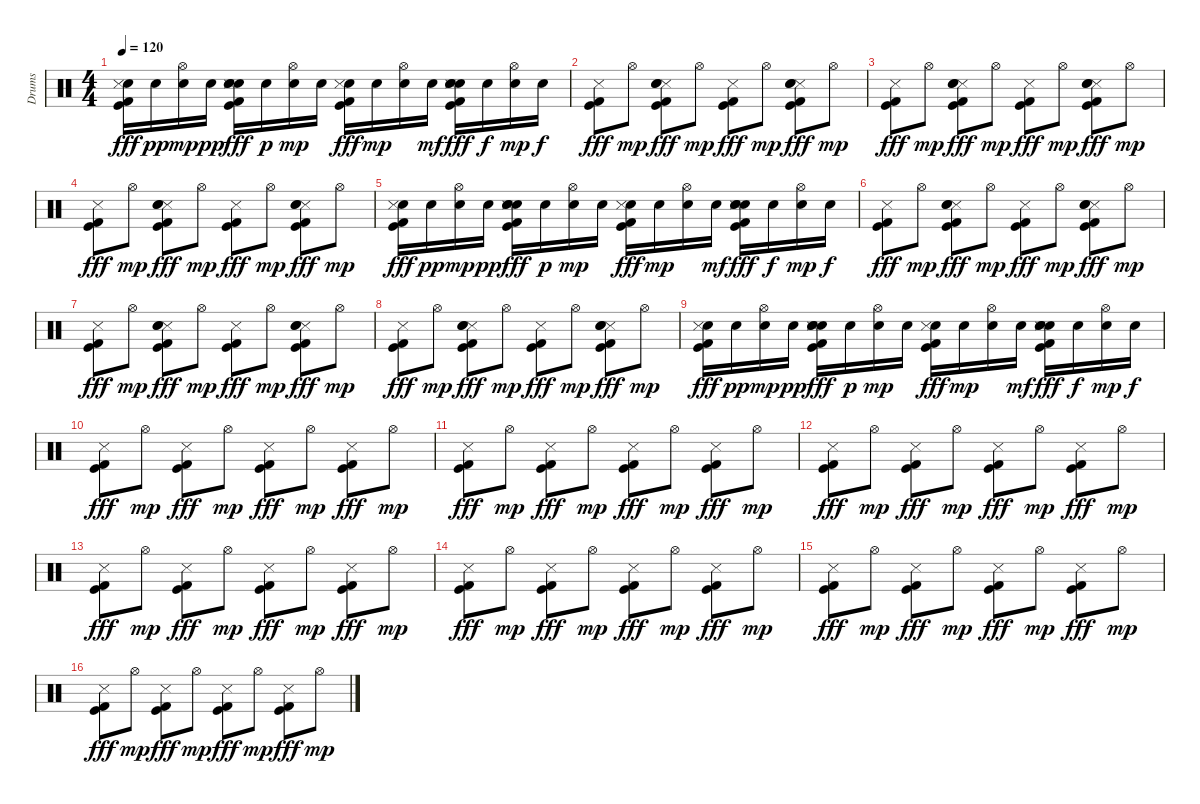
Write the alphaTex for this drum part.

\track ("Drums" "Drums") {instrument percussion}
\staff {score}
\articulation defaults
\ts (4 4)
\tempo 120
\clef neutral
\ks c
("Snare (hit)" "Metronome (hit)" "Kick (hit)" "Kick (hit) 2").16{dy fff} "Snare (hit)".16{dy pp} ("Snare (hit)" "Hi-Hat (open)").16{dy mp} "Snare (hit)".16{dy pp} ("Snare (hit)" "Metronome (hit)" "Kick (hit)" "Kick (hit) 2" "Snare (hit) 2" "Electric Snare (hit)").16{dy fff} "Snare (hit)".16{dy p} ("Snare (hit)" "Hi-Hat (open)").16{dy mp} "Snare (hit)".16 ("Snare (hit)" "Metronome (hit)" "Kick (hit)" "Kick (hit) 2").16{dy fff} "Snare (hit)".16{dy mp} ("Snare (hit)" "Hi-Hat (open)").16 "Snare (hit)".16{dy mf} ("Snare (hit)" "Metronome (hit)" "Kick (hit)" "Kick (hit) 2" "Snare (hit) 2" "Electric Snare (hit)").16{dy fff} "Snare (hit)".16{dy f} ("Snare (hit)" "Hi-Hat (open)").16{dy mp} "Snare (hit)".16{dy f} |
("Metronome (hit)" "Kick (hit)" "Kick (hit) 2").8{dy fff} "Hi-Hat (open)".8{dy mp} ("Metronome (hit)" "Kick (hit)" "Kick (hit) 2" "Snare (hit) 2" "Electric Snare (hit)").8{dy fff} "Hi-Hat (open)".8{dy mp} ("Metronome (hit)" "Kick (hit)" "Kick (hit) 2").8{dy fff} "Hi-Hat (open)".8{dy mp} ("Metronome (hit)" "Kick (hit)" "Kick (hit) 2" "Snare (hit) 2" "Electric Snare (hit)").8{dy fff} "Hi-Hat (open)".8{dy mp} |
("Metronome (hit)" "Kick (hit)" "Kick (hit) 2").8{dy fff} "Hi-Hat (open)".8{dy mp} ("Metronome (hit)" "Kick (hit)" "Kick (hit) 2" "Snare (hit) 2" "Electric Snare (hit)").8{dy fff} "Hi-Hat (open)".8{dy mp} ("Metronome (hit)" "Kick (hit)" "Kick (hit) 2").8{dy fff} "Hi-Hat (open)".8{dy mp} ("Metronome (hit)" "Kick (hit)" "Kick (hit) 2" "Snare (hit) 2" "Electric Snare (hit)").8{dy fff} "Hi-Hat (open)".8{dy mp} |
("Metronome (hit)" "Kick (hit)" "Kick (hit) 2").8{dy fff} "Hi-Hat (open)".8{dy mp} ("Metronome (hit)" "Kick (hit)" "Kick (hit) 2" "Snare (hit) 2" "Electric Snare (hit)").8{dy fff} "Hi-Hat (open)".8{dy mp} ("Metronome (hit)" "Kick (hit)" "Kick (hit) 2").8{dy fff} "Hi-Hat (open)".8{dy mp} ("Metronome (hit)" "Kick (hit)" "Kick (hit) 2" "Snare (hit) 2" "Electric Snare (hit)").8{dy fff} "Hi-Hat (open)".8{dy mp} |
("Snare (hit)" "Metronome (hit)" "Kick (hit)" "Kick (hit) 2").16{dy fff} "Snare (hit)".16{dy pp} ("Snare (hit)" "Hi-Hat (open)").16{dy mp} "Snare (hit)".16{dy pp} ("Snare (hit)" "Metronome (hit)" "Kick (hit)" "Kick (hit) 2" "Snare (hit) 2" "Electric Snare (hit)").16{dy fff} "Snare (hit)".16{dy p} ("Snare (hit)" "Hi-Hat (open)").16{dy mp} "Snare (hit)".16 ("Snare (hit)" "Metronome (hit)" "Kick (hit)" "Kick (hit) 2").16{dy fff} "Snare (hit)".16{dy mp} ("Snare (hit)" "Hi-Hat (open)").16 "Snare (hit)".16{dy mf} ("Snare (hit)" "Metronome (hit)" "Kick (hit)" "Kick (hit) 2" "Snare (hit) 2" "Electric Snare (hit)").16{dy fff} "Snare (hit)".16{dy f} ("Snare (hit)" "Hi-Hat (open)").16{dy mp} "Snare (hit)".16{dy f} |
("Metronome (hit)" "Kick (hit)" "Kick (hit) 2").8{dy fff} "Hi-Hat (open)".8{dy mp} ("Metronome (hit)" "Kick (hit)" "Kick (hit) 2" "Snare (hit) 2" "Electric Snare (hit)").8{dy fff} "Hi-Hat (open)".8{dy mp} ("Metronome (hit)" "Kick (hit)" "Kick (hit) 2").8{dy fff} "Hi-Hat (open)".8{dy mp} ("Metronome (hit)" "Kick (hit)" "Kick (hit) 2" "Snare (hit) 2" "Electric Snare (hit)").8{dy fff} "Hi-Hat (open)".8{dy mp} |
("Metronome (hit)" "Kick (hit)" "Kick (hit) 2").8{dy fff} "Hi-Hat (open)".8{dy mp} ("Metronome (hit)" "Kick (hit)" "Kick (hit) 2" "Snare (hit) 2" "Electric Snare (hit)").8{dy fff} "Hi-Hat (open)".8{dy mp} ("Metronome (hit)" "Kick (hit)" "Kick (hit) 2").8{dy fff} "Hi-Hat (open)".8{dy mp} ("Metronome (hit)" "Kick (hit)" "Kick (hit) 2" "Snare (hit) 2" "Electric Snare (hit)").8{dy fff} "Hi-Hat (open)".8{dy mp} |
("Metronome (hit)" "Kick (hit)" "Kick (hit) 2").8{dy fff} "Hi-Hat (open)".8{dy mp} ("Metronome (hit)" "Kick (hit)" "Kick (hit) 2" "Snare (hit) 2" "Electric Snare (hit)").8{dy fff} "Hi-Hat (open)".8{dy mp} ("Metronome (hit)" "Kick (hit)" "Kick (hit) 2").8{dy fff} "Hi-Hat (open)".8{dy mp} ("Metronome (hit)" "Kick (hit)" "Kick (hit) 2" "Snare (hit) 2" "Electric Snare (hit)").8{dy fff} "Hi-Hat (open)".8{dy mp} |
("Snare (hit)" "Metronome (hit)" "Kick (hit)" "Kick (hit) 2").16{dy fff} "Snare (hit)".16{dy pp} ("Snare (hit)" "Hi-Hat (open)").16{dy mp} "Snare (hit)".16{dy pp} ("Snare (hit)" "Metronome (hit)" "Kick (hit)" "Kick (hit) 2" "Snare (hit) 2" "Electric Snare (hit)").16{dy fff} "Snare (hit)".16{dy p} ("Snare (hit)" "Hi-Hat (open)").16{dy mp} "Snare (hit)".16 ("Snare (hit)" "Metronome (hit)" "Kick (hit)" "Kick (hit) 2").16{dy fff} "Snare (hit)".16{dy mp} ("Snare (hit)" "Hi-Hat (open)").16 "Snare (hit)".16{dy mf} ("Snare (hit)" "Metronome (hit)" "Kick (hit)" "Kick (hit) 2" "Snare (hit) 2" "Electric Snare (hit)").16{dy fff} "Snare (hit)".16{dy f} ("Snare (hit)" "Hi-Hat (open)").16{dy mp} "Snare (hit)".16{dy f} |
("Metronome (hit)" "Kick (hit)" "Kick (hit) 2").8{dy fff} "Hi-Hat (open)".8{dy mp} ("Metronome (hit)" "Kick (hit)" "Kick (hit) 2").8{dy fff} "Hi-Hat (open)".8{dy mp} ("Metronome (hit)" "Kick (hit)" "Kick (hit) 2").8{dy fff} "Hi-Hat (open)".8{dy mp} ("Metronome (hit)" "Kick (hit)" "Kick (hit) 2").8{dy fff} "Hi-Hat (open)".8{dy mp} |
("Metronome (hit)" "Kick (hit)" "Kick (hit) 2").8{dy fff} "Hi-Hat (open)".8{dy mp} ("Metronome (hit)" "Kick (hit)" "Kick (hit) 2").8{dy fff} "Hi-Hat (open)".8{dy mp} ("Metronome (hit)" "Kick (hit)" "Kick (hit) 2").8{dy fff} "Hi-Hat (open)".8{dy mp} ("Metronome (hit)" "Kick (hit)" "Kick (hit) 2").8{dy fff} "Hi-Hat (open)".8{dy mp} |
("Metronome (hit)" "Kick (hit)" "Kick (hit) 2").8{dy fff} "Hi-Hat (open)".8{dy mp} ("Metronome (hit)" "Kick (hit)" "Kick (hit) 2").8{dy fff} "Hi-Hat (open)".8{dy mp} ("Metronome (hit)" "Kick (hit)" "Kick (hit) 2").8{dy fff} "Hi-Hat (open)".8{dy mp} ("Metronome (hit)" "Kick (hit)" "Kick (hit) 2").8{dy fff} "Hi-Hat (open)".8{dy mp} |
("Metronome (hit)" "Kick (hit)" "Kick (hit) 2").8{dy fff} "Hi-Hat (open)".8{dy mp} ("Metronome (hit)" "Kick (hit)" "Kick (hit) 2").8{dy fff} "Hi-Hat (open)".8{dy mp} ("Metronome (hit)" "Kick (hit)" "Kick (hit) 2").8{dy fff} "Hi-Hat (open)".8{dy mp} ("Metronome (hit)" "Kick (hit)" "Kick (hit) 2").8{dy fff} "Hi-Hat (open)".8{dy mp} |
("Metronome (hit)" "Kick (hit)" "Kick (hit) 2").8{dy fff} "Hi-Hat (open)".8{dy mp} ("Metronome (hit)" "Kick (hit)" "Kick (hit) 2").8{dy fff} "Hi-Hat (open)".8{dy mp} ("Metronome (hit)" "Kick (hit)" "Kick (hit) 2").8{dy fff} "Hi-Hat (open)".8{dy mp} ("Metronome (hit)" "Kick (hit)" "Kick (hit) 2").8{dy fff} "Hi-Hat (open)".8{dy mp} |
("Metronome (hit)" "Kick (hit)" "Kick (hit) 2").8{dy fff} "Hi-Hat (open)".8{dy mp} ("Metronome (hit)" "Kick (hit)" "Kick (hit) 2").8{dy fff} "Hi-Hat (open)".8{dy mp} ("Metronome (hit)" "Kick (hit)" "Kick (hit) 2").8{dy fff} "Hi-Hat (open)".8{dy mp} ("Metronome (hit)" "Kick (hit)" "Kick (hit) 2").8{dy fff} "Hi-Hat (open)".8{dy mp} |
("Metronome (hit)" "Kick (hit)" "Kick (hit) 2").8{dy fff} "Hi-Hat (open)".8{dy mp} ("Metronome (hit)" "Kick (hit)" "Kick (hit) 2").8{dy fff} "Hi-Hat (open)".8{dy mp} ("Metronome (hit)" "Kick (hit)" "Kick (hit) 2").8{dy fff} "Hi-Hat (open)".8{dy mp} ("Metronome (hit)" "Kick (hit)" "Kick (hit) 2").8{dy fff} "Hi-Hat (open)".8{dy mp}
